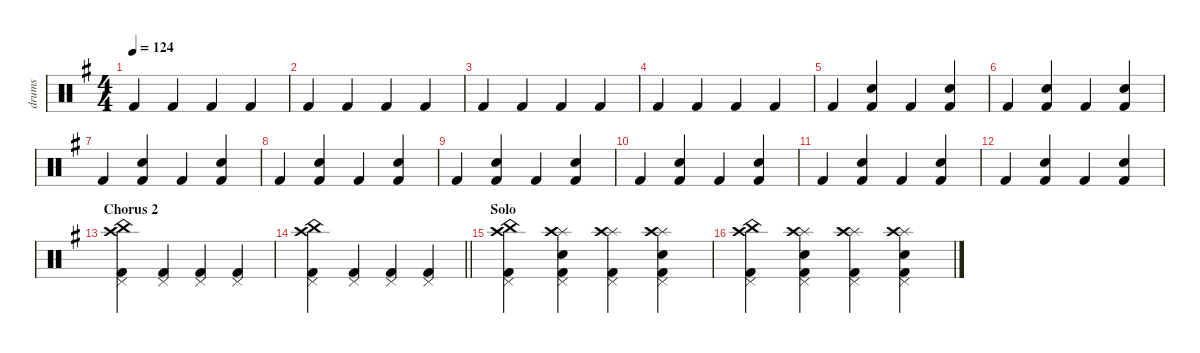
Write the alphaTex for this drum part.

\defaultSystemsLayout 4
\hideDynamics
\bracketExtendMode nobrackets
\otherSystemsTrackNameOrientation horizontal
\track ("drums" "drums") {instrument percussion}
\staff {score}
\articulation defaults
\ts (4 4)
\tempo 124
\clef neutral
\scale
1.07945
\ks eminor "Kick (hit) 2"{acc forcenatural}.4{dy mf beam Up} "Kick (hit) 2"{acc forcenatural}.4{beam Up} "Kick (hit) 2"{acc forcenatural}.4{beam Up} "Kick (hit) 2"{acc forcenatural}.4{beam Up}
|
\scale
0.973518 "Kick (hit) 2"{acc forcenatural}.4{beam Up} "Kick (hit) 2"{acc forcenatural}.4{beam Up} "Kick (hit) 2"{acc forcenatural}.4{beam Up} "Kick (hit) 2"{acc forcenatural}.4{beam Up} |
\scale
0.973518 "Kick (hit) 2"{acc forcenatural}.4{beam Up} "Kick (hit) 2"{acc forcenatural}.4{beam Up} "Kick (hit) 2"{acc forcenatural}.4{beam Up} "Kick (hit) 2"{acc forcenatural}.4{beam Up} |
\scale
0.973518 "Kick (hit) 2"{acc forcenatural}.4{beam Up} "Kick (hit) 2"{acc forcenatural}.4{beam Up} "Kick (hit) 2"{acc forcenatural}.4{beam Up} "Kick (hit) 2"{acc forcenatural}.4{beam Up} |
\scale
1.07945 "Kick (hit) 2"{acc forcenatural}.4{beam Up} ("Kick (hit) 2"{acc forcenatural} "Snare (hit) 2"{acc forcenatural}).4{beam Up} "Kick (hit) 2"{acc forcenatural}.4{beam Up} ("Kick (hit) 2"{acc forcenatural} "Snare (hit) 2"{acc forcenatural}).4{beam Up} |
\scale
0.973518 "Kick (hit) 2"{acc forcenatural}.4{beam Up} ("Kick (hit) 2"{acc forcenatural} "Snare (hit) 2"{acc forcenatural}).4{beam Up} "Kick (hit) 2"{acc forcenatural}.4{beam Up} ("Kick (hit) 2"{acc forcenatural} "Snare (hit) 2"{acc forcenatural}).4{beam Up} |
\scale
0.973518 "Kick (hit) 2"{acc forcenatural}.4{beam Up} ("Kick (hit) 2"{acc forcenatural} "Snare (hit) 2"{acc forcenatural}).4{beam Up} "Kick (hit) 2"{acc forcenatural}.4{beam Up} ("Kick (hit) 2"{acc forcenatural} "Snare (hit) 2"{acc forcenatural}).4{beam Up} |
\scale
0.973518 "Kick (hit) 2"{acc forcenatural}.4{beam Up} ("Kick (hit) 2"{acc forcenatural} "Snare (hit) 2"{acc forcenatural}).4{beam Up} "Kick (hit) 2"{acc forcenatural}.4{beam Up} ("Kick (hit) 2"{acc forcenatural} "Snare (hit) 2"{acc forcenatural}).4{beam Up} |
\scale
1.07945 "Kick (hit) 2"{acc forcenatural}.4{beam Up} ("Kick (hit) 2"{acc forcenatural} "Snare (hit) 2"{acc forcenatural}).4{beam Up} "Kick (hit) 2"{acc forcenatural}.4{beam Up} ("Kick (hit) 2"{acc forcenatural} "Snare (hit) 2"{acc forcenatural}).4{beam Up} |
\scale
0.973518 "Kick (hit) 2"{acc forcenatural}.4{beam Up} ("Kick (hit) 2"{acc forcenatural} "Snare (hit) 2"{acc forcenatural}).4{beam Up} "Kick (hit) 2"{acc forcenatural}.4{beam Up} ("Kick (hit) 2"{acc forcenatural} "Snare (hit) 2"{acc forcenatural}).4{beam Up} |
\scale
0.973518 "Kick (hit) 2"{acc forcenatural}.4{beam Up} ("Kick (hit) 2"{acc forcenatural} "Snare (hit) 2"{acc forcenatural}).4{beam Up} "Kick (hit) 2"{acc forcenatural}.4{beam Up} ("Kick (hit) 2"{acc forcenatural} "Snare (hit) 2"{acc forcenatural}).4{beam Up} |
\scale
0.973518 "Kick (hit) 2"{acc forcenatural}.4{beam Up} ("Kick (hit) 2"{acc forcenatural} "Snare (hit) 2"{acc forcenatural}).4{beam Up} "Kick (hit) 2"{acc forcenatural}.4{beam Up} ("Kick (hit) 2"{acc forcenatural} "Snare (hit) 2"{acc forcenatural}).4{beam Up} |
\section ("" "Chorus 2")
\scale
1.07945 ("Kick (hit) 2"{acc forcenatural} "China (hit)"{acc forcenatural} "Crash high (hit)"{acc forcenatural} "Pedal Hi-Hat (hit)"{acc forcenatural}).4{beam Down} ("Kick (hit) 2"{acc forcenatural} "Pedal Hi-Hat (hit)"{acc forcenatural}).4{beam Up} ("Kick (hit) 2"{acc forcenatural} "Pedal Hi-Hat (hit)"{acc forcenatural}).4{beam Up} ("Kick (hit) 2"{acc forcenatural} "Pedal Hi-Hat (hit)"{acc forcenatural}).4{beam Up} |
\scale
0.973518
\barLineRight lightlight
("Kick (hit) 2"{acc forcenatural} "China (hit)"{acc forcenatural} "Crash high (hit)"{acc forcenatural} "Pedal Hi-Hat (hit)"{acc forcenatural}).4{beam Down} ("Kick (hit) 2"{acc forcenatural} "Pedal Hi-Hat (hit)"{acc forcenatural}).4{beam Up} ("Kick (hit) 2"{acc forcenatural} "Pedal Hi-Hat (hit)"{acc forcenatural}).4{beam Up} ("Kick (hit) 2"{acc forcenatural} "Pedal Hi-Hat (hit)"{acc forcenatural}).4{beam Up} |
\section ("" "Solo")
\scale
0.973518 ("Kick (hit) 2"{acc forcenatural} "China (hit)"{acc forcenatural} "Crash high (hit)"{acc forcenatural} "Pedal Hi-Hat (hit)"{acc forcenatural}).4{beam Down} ("Kick (hit) 2"{acc forcenatural} "Pedal Hi-Hat (hit)"{acc forcenatural} "Snare (hit) 2"{acc forcenatural} "Splash (hit)"{acc forcenatural} "Crash high (hit)"{acc forcenatural}).4{beam Down} ("Kick (hit) 2"{acc forcenatural} "Pedal Hi-Hat (hit)"{acc forcenatural} "Splash (hit)"{acc forcenatural} "Crash high (hit)"{acc forcenatural}).4{beam Down} ("Kick (hit) 2"{acc forcenatural} "Pedal Hi-Hat (hit)"{acc forcenatural} "Snare (hit) 2"{acc forcenatural} "Splash (hit)"{acc forcenatural} "Crash high (hit)"{acc forcenatural}).4{beam Down} |
\scale
0.973518 ("Kick (hit) 2"{acc forcenatural} "China (hit)"{acc forcenatural} "Crash high (hit)"{acc forcenatural} "Pedal Hi-Hat (hit)"{acc forcenatural}).4{beam Down} ("Kick (hit) 2"{acc forcenatural} "Pedal Hi-Hat (hit)"{acc forcenatural} "Snare (hit) 2"{acc forcenatural} "Splash (hit)"{acc forcenatural} "Crash high (hit)"{acc forcenatural}).4{beam Down} ("Kick (hit) 2"{acc forcenatural} "Pedal Hi-Hat (hit)"{acc forcenatural} "Splash (hit)"{acc forcenatural} "Crash high (hit)"{acc forcenatural}).4{beam Down} ("Kick (hit) 2"{acc forcenatural} "Pedal Hi-Hat (hit)"{acc forcenatural} "Snare (hit) 2"{acc forcenatural} "Splash (hit)"{acc forcenatural} "Crash high (hit)"{acc forcenatural}).4{beam Down}
